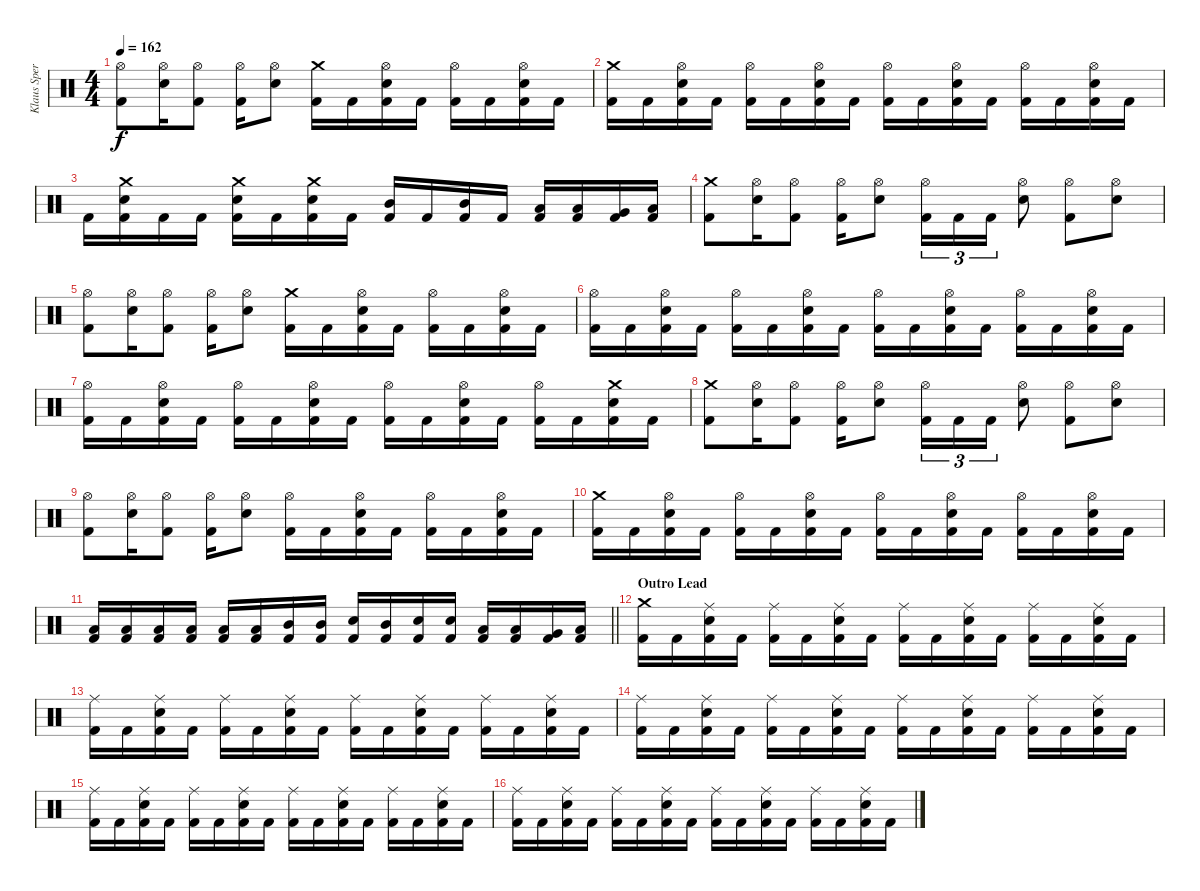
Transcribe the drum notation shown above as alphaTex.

\track ("Klaus Sperling" "Klaus Sper") {instrument percussion}
\staff {score}
\articulation defaults
\ts (4 4)
\tempo 162
\clef neutral
\ks c
("Hi-Hat (open)" "Kick (hit) 2").8{dy f} ("Hi-Hat (open)" "Electric Snare (hit)").16 ("Hi-Hat (open)" "Kick (hit) 2").8 ("Hi-Hat (open)" "Kick (hit) 2").16 ("Hi-Hat (open)" "Electric Snare (hit)").8 ("Crash medium (hit)" "Kick (hit) 2").16 "Kick (hit) 2".16 ("Hi-Hat (open)" "Electric Snare (hit)" "Kick (hit) 2").16 "Kick (hit) 2".16 ("Hi-Hat (open)" "Kick (hit) 2").16 "Kick (hit) 2".16 ("Hi-Hat (open)" "Electric Snare (hit)" "Kick (hit) 2").16 "Kick (hit) 2".16 |
("Crash medium (hit)" "Kick (hit) 2").16 "Kick (hit) 2".16 ("Hi-Hat (open)" "Electric Snare (hit)" "Kick (hit) 2").16 "Kick (hit) 2".16 ("Hi-Hat (open)" "Kick (hit) 2").16 "Kick (hit) 2".16 ("Hi-Hat (open)" "Electric Snare (hit)" "Kick (hit) 2").16 "Kick (hit) 2".16 ("Hi-Hat (open)" "Kick (hit) 2").16 "Kick (hit) 2".16 ("Hi-Hat (open)" "Electric Snare (hit)" "Kick (hit) 2").16 "Kick (hit) 2".16 ("Hi-Hat (open)" "Kick (hit) 2").16 "Kick (hit) 2".16 ("Hi-Hat (open)" "Electric Snare (hit)" "Kick (hit) 2").16 "Kick (hit) 2".16 |
"Kick (hit) 2".16 ("Crash medium (hit)" "Electric Snare (hit)" "Kick (hit) 2").16 "Kick (hit) 2".16 "Kick (hit) 2".16 ("Crash medium (hit)" "Electric Snare (hit)" "Kick (hit) 2").16 "Kick (hit) 2".16 ("Crash medium (hit)" "Electric Snare (hit)" "Kick (hit) 2").16 "Kick (hit) 2".16 ("Mid Tom (hit)" "Kick (hit) 2").16 "Kick (hit) 2".16 ("Mid Tom (hit)" "Kick (hit) 2").16 "Kick (hit) 2".16 ("Low Tom (hit)" "Kick (hit) 2").16 ("Low Tom (hit)" "Kick (hit) 2").16 ("Very Low Tom (hit)" "Kick (hit) 2").16 ("Low Floor Tom (hit)" "Kick (hit) 2").16 |
("Crash medium (hit)" "Kick (hit) 2").8 ("Hi-Hat (open)" "Electric Snare (hit)").16 ("Hi-Hat (open)" "Kick (hit) 2").8 ("Hi-Hat (open)" "Kick (hit) 2").16 ("Hi-Hat (open)" "Electric Snare (hit)").8 ("Hi-Hat (open)" "Kick (hit) 2").16{tu (3 2)} "Kick (hit) 2".16{tu (3 2)} "Kick (hit) 2".16{tu (3 2)} ("Hi-Hat (open)" "Electric Snare (hit)").8 ("Hi-Hat (open)" "Kick (hit) 2").8 ("Hi-Hat (open)" "Electric Snare (hit)").8 |
("Hi-Hat (open)" "Kick (hit) 2").8 ("Hi-Hat (open)" "Electric Snare (hit)").16 ("Hi-Hat (open)" "Kick (hit) 2").8 ("Hi-Hat (open)" "Kick (hit) 2").16 ("Hi-Hat (open)" "Electric Snare (hit)").8 ("Crash medium (hit)" "Kick (hit) 2").16 "Kick (hit) 2".16 ("Hi-Hat (open)" "Electric Snare (hit)" "Kick (hit) 2").16 "Kick (hit) 2".16 ("Hi-Hat (open)" "Kick (hit) 2").16 "Kick (hit) 2".16 ("Hi-Hat (open)" "Electric Snare (hit)" "Kick (hit) 2").16 "Kick (hit) 2".16 |
("Hi-Hat (open)" "Kick (hit) 2").16 "Kick (hit) 2".16 ("Hi-Hat (open)" "Electric Snare (hit)" "Kick (hit) 2").16 "Kick (hit) 2".16 ("Hi-Hat (open)" "Kick (hit) 2").16 "Kick (hit) 2".16 ("Hi-Hat (open)" "Electric Snare (hit)" "Kick (hit) 2").16 "Kick (hit) 2".16 ("Hi-Hat (open)" "Kick (hit) 2").16 "Kick (hit) 2".16 ("Hi-Hat (open)" "Electric Snare (hit)" "Kick (hit) 2").16 "Kick (hit) 2".16 ("Hi-Hat (open)" "Kick (hit) 2").16 "Kick (hit) 2".16 ("Hi-Hat (open)" "Electric Snare (hit)" "Kick (hit) 2").16 "Kick (hit) 2".16 |
("Hi-Hat (open)" "Kick (hit) 2").16 "Kick (hit) 2".16 ("Hi-Hat (open)" "Electric Snare (hit)" "Kick (hit) 2").16 "Kick (hit) 2".16 ("Hi-Hat (open)" "Kick (hit) 2").16 "Kick (hit) 2".16 ("Hi-Hat (open)" "Electric Snare (hit)" "Kick (hit) 2").16 "Kick (hit) 2".16 ("Hi-Hat (open)" "Kick (hit) 2").16 "Kick (hit) 2".16 ("Hi-Hat (open)" "Electric Snare (hit)" "Kick (hit) 2").16 "Kick (hit) 2".16 ("Hi-Hat (open)" "Kick (hit) 2").16 "Kick (hit) 2".16 ("Crash medium (hit)" "Electric Snare (hit)" "Kick (hit) 2").16 "Kick (hit) 2".16 |
("Crash medium (hit)" "Kick (hit) 2").8 ("Hi-Hat (open)" "Electric Snare (hit)").16 ("Hi-Hat (open)" "Kick (hit) 2").8 ("Hi-Hat (open)" "Kick (hit) 2").16 ("Hi-Hat (open)" "Electric Snare (hit)").8 ("Hi-Hat (open)" "Kick (hit) 2").16{tu (3 2)} "Kick (hit) 2".16{tu (3 2)} "Kick (hit) 2".16{tu (3 2)} ("Hi-Hat (open)" "Electric Snare (hit)").8 ("Hi-Hat (open)" "Kick (hit) 2").8 ("Hi-Hat (open)" "Electric Snare (hit)").8 |
("Hi-Hat (open)" "Kick (hit) 2").8 ("Hi-Hat (open)" "Electric Snare (hit)").16 ("Hi-Hat (open)" "Kick (hit) 2").8 ("Hi-Hat (open)" "Kick (hit) 2").16 ("Hi-Hat (open)" "Electric Snare (hit)").8 ("Hi-Hat (open)" "Kick (hit) 2").16 "Kick (hit) 2".16 ("Hi-Hat (open)" "Electric Snare (hit)" "Kick (hit) 2").16 "Kick (hit) 2".16 ("Hi-Hat (open)" "Kick (hit) 2").16 "Kick (hit) 2".16 ("Hi-Hat (open)" "Electric Snare (hit)" "Kick (hit) 2").16 "Kick (hit) 2".16 |
("Crash medium (hit)" "Kick (hit) 2").16 "Kick (hit) 2".16 ("Hi-Hat (open)" "Electric Snare (hit)" "Kick (hit) 2").16 "Kick (hit) 2".16 ("Hi-Hat (open)" "Kick (hit) 2").16 "Kick (hit) 2".16 ("Hi-Hat (open)" "Electric Snare (hit)" "Kick (hit) 2").16 "Kick (hit) 2".16 ("Hi-Hat (open)" "Kick (hit) 2").16 "Kick (hit) 2".16 ("Hi-Hat (open)" "Electric Snare (hit)" "Kick (hit) 2").16 "Kick (hit) 2".16 ("Hi-Hat (open)" "Kick (hit) 2").16 "Kick (hit) 2".16 ("Hi-Hat (open)" "Electric Snare (hit)" "Kick (hit) 2").16 "Kick (hit) 2".16 |
\barLineRight lightlight
("Low Tom (hit)" "Kick (hit) 2").16 ("Low Tom (hit)" "Kick (hit) 2").16 ("Low Tom (hit)" "Kick (hit) 2").16 ("Low Tom (hit)" "Kick (hit) 2").16 ("Low Tom (hit)" "Kick (hit) 2").16 ("Low Tom (hit)" "Kick (hit) 2").16 ("Mid Tom (hit)" "Kick (hit) 2").16 ("Mid Tom (hit)" "Kick (hit) 2").16 ("Electric Snare (hit)" "Kick (hit) 2").16 ("Mid Tom (hit)" "Kick (hit) 2").16 ("Electric Snare (hit)" "Kick (hit) 2").16 ("Electric Snare (hit)" "Kick (hit) 2").16 ("Low Tom (hit)" "Kick (hit) 2").16 ("Low Tom (hit)" "Kick (hit) 2").16 ("Very Low Tom (hit)" "Kick (hit) 2").16 ("Low Floor Tom (hit)" "Kick (hit) 2").16 |
\section ("" "Outro Lead")
("Crash medium (hit)" "Kick (hit) 2").16 "Kick (hit) 2".16 ("Ride (middle)" "Electric Snare (hit)" "Kick (hit) 2").16 "Kick (hit) 2".16 ("Ride (middle)" "Kick (hit) 2").16 "Kick (hit) 2".16 ("Ride (middle)" "Electric Snare (hit)" "Kick (hit) 2").16 "Kick (hit) 2".16 ("Ride (middle)" "Kick (hit) 2").16 "Kick (hit) 2".16 ("Ride (middle)" "Electric Snare (hit)" "Kick (hit) 2").16 "Kick (hit) 2".16 ("Ride (middle)" "Kick (hit) 2").16 "Kick (hit) 2".16 ("Ride (middle)" "Electric Snare (hit)" "Kick (hit) 2").16 "Kick (hit) 2".16 |
("Ride (middle)" "Kick (hit) 2").16 "Kick (hit) 2".16 ("Ride (middle)" "Electric Snare (hit)" "Kick (hit) 2").16 "Kick (hit) 2".16 ("Ride (middle)" "Kick (hit) 2").16 "Kick (hit) 2".16 ("Ride (middle)" "Electric Snare (hit)" "Kick (hit) 2").16 "Kick (hit) 2".16 ("Ride (middle)" "Kick (hit) 2").16 "Kick (hit) 2".16 ("Ride (middle)" "Electric Snare (hit)" "Kick (hit) 2").16 "Kick (hit) 2".16 ("Ride (middle)" "Kick (hit) 2").16 "Kick (hit) 2".16 ("Ride (middle)" "Electric Snare (hit)" "Kick (hit) 2").16 "Kick (hit) 2".16 |
("Ride (middle)" "Kick (hit) 2").16 "Kick (hit) 2".16 ("Ride (middle)" "Electric Snare (hit)" "Kick (hit) 2").16 "Kick (hit) 2".16 ("Ride (middle)" "Kick (hit) 2").16 "Kick (hit) 2".16 ("Ride (middle)" "Electric Snare (hit)" "Kick (hit) 2").16 "Kick (hit) 2".16 ("Ride (middle)" "Kick (hit) 2").16 "Kick (hit) 2".16 ("Ride (middle)" "Electric Snare (hit)" "Kick (hit) 2").16 "Kick (hit) 2".16 ("Ride (middle)" "Kick (hit) 2").16 "Kick (hit) 2".16 ("Ride (middle)" "Electric Snare (hit)" "Kick (hit) 2").16 "Kick (hit) 2".16 |
("Ride (middle)" "Kick (hit) 2").16 "Kick (hit) 2".16 ("Ride (middle)" "Electric Snare (hit)" "Kick (hit) 2").16 "Kick (hit) 2".16 ("Ride (middle)" "Kick (hit) 2").16 "Kick (hit) 2".16 ("Ride (middle)" "Electric Snare (hit)" "Kick (hit) 2").16 "Kick (hit) 2".16 ("Ride (middle)" "Kick (hit) 2").16 "Kick (hit) 2".16 ("Ride (middle)" "Electric Snare (hit)" "Kick (hit) 2").16 "Kick (hit) 2".16 ("Ride (middle)" "Kick (hit) 2").16 "Kick (hit) 2".16 ("Ride (middle)" "Electric Snare (hit)" "Kick (hit) 2").16 "Kick (hit) 2".16 |
("Ride (middle)" "Kick (hit) 2").16 "Kick (hit) 2".16 ("Ride (middle)" "Electric Snare (hit)" "Kick (hit) 2").16 "Kick (hit) 2".16 ("Ride (middle)" "Kick (hit) 2").16 "Kick (hit) 2".16 ("Ride (middle)" "Electric Snare (hit)" "Kick (hit) 2").16 "Kick (hit) 2".16 ("Ride (middle)" "Kick (hit) 2").16 "Kick (hit) 2".16 ("Ride (middle)" "Electric Snare (hit)" "Kick (hit) 2").16 "Kick (hit) 2".16 ("Ride (middle)" "Kick (hit) 2").16 "Kick (hit) 2".16 ("Ride (middle)" "Electric Snare (hit)" "Kick (hit) 2").16 "Kick (hit) 2".16
